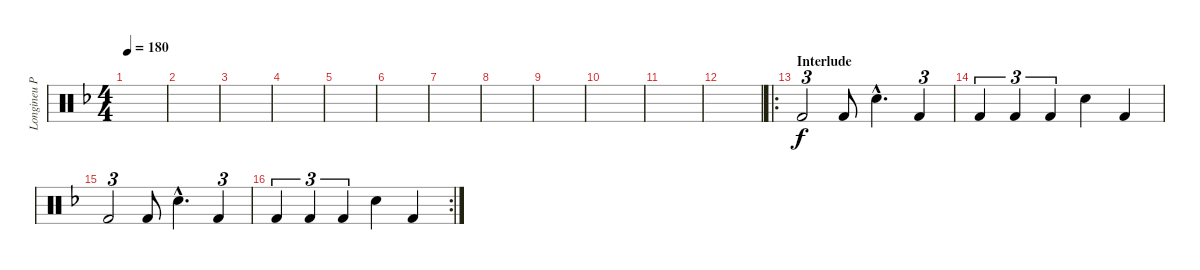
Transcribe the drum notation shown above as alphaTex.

\track ("Longineu Parsons III (Drums 2)" "Longineu P") {instrument percussion}
\staff {score}
\articulation defaults
\ts (4 4)
\tempo 180
\clef neutral
\ks f
|
|
|
|
|
|
|
|
|
|
|
|
\ro
\section ("" "Interlude")
"Kick (hit) 2".2{tu (3 2)} "Kick (hit) 2".8 "Snare (hit) 2"{hac}.4{d} "Kick (hit) 2".4{tu (3 2)} |
"Kick (hit) 2".4{tu (3 2)} "Kick (hit) 2".4{tu (3 2)} "Kick (hit) 2".4{tu (3 2)} "Snare (hit) 2".4 "Kick (hit) 2".4 |
"Kick (hit) 2".2{tu (3 2)} "Kick (hit) 2".8 "Snare (hit) 2"{hac}.4{d} "Kick (hit) 2".4{tu (3 2)} |
\rc 2 "Kick (hit) 2".4{tu (3 2)} "Kick (hit) 2".4{tu (3 2)} "Kick (hit) 2".4{tu (3 2)} "Snare (hit) 2".4 "Kick (hit) 2".4
